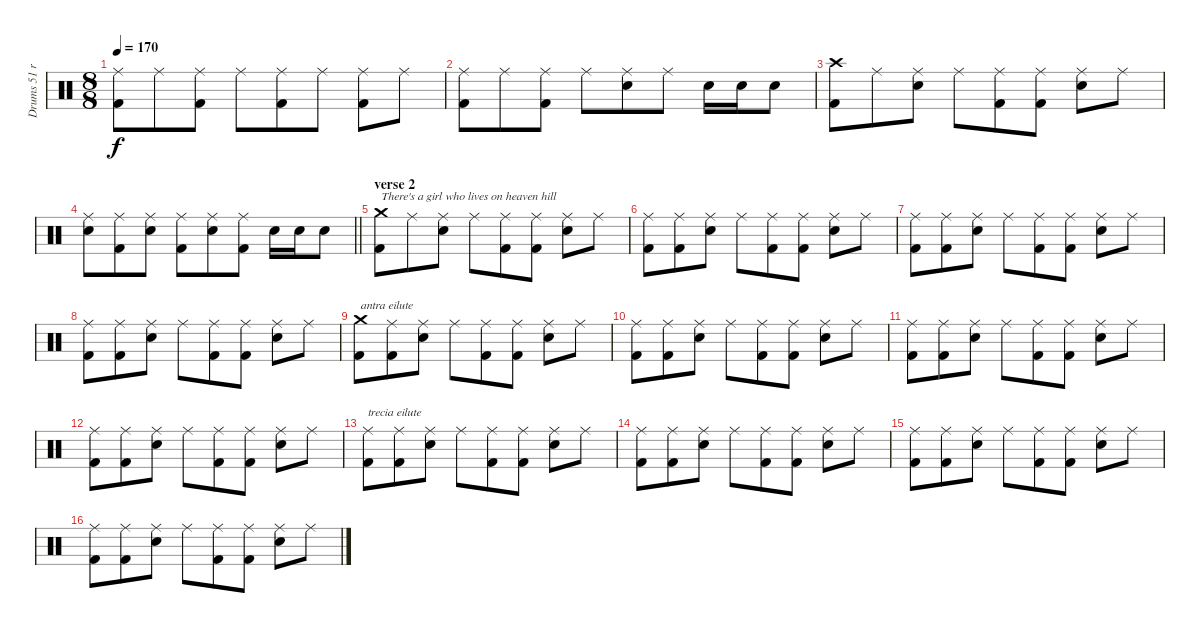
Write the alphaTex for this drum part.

\track ("Drums 51 ride ALBUM" "Drums 51 r") {mute instrument percussion}
\staff {score}
\articulation defaults
\ts (8 8)
\tempo 170
\clef neutral
\ks c
("Ride (middle)" "Kick (hit) 2").8{dy f} "Ride (middle)".8 ("Ride (middle)" "Kick (hit) 2").8 "Ride (middle)".8 ("Ride (middle)" "Kick (hit) 2").8 "Ride (middle)".8 ("Ride (middle)" "Kick (hit) 2").8 "Ride (middle)".8 |
("Ride (middle)" "Kick (hit) 2").8 "Ride (middle)".8 ("Ride (middle)" "Kick (hit) 2").8 "Ride (middle)".8 ("Ride (middle)" "Snare (hit) 2").8 "Ride (middle)".8 "Snare (hit) 2".16 "Snare (hit) 2".16 "Snare (hit) 2".8 |
("Crash high (hit)" "Kick (hit) 2").8 "Ride (middle)".8 ("Ride (middle)" "Snare (hit) 2").8 "Ride (middle)".8 ("Ride (middle)" "Kick (hit) 2").8 ("Ride (middle)" "Kick (hit) 2").8 ("Ride (middle)" "Snare (hit) 2").8 "Ride (middle)".8 |
\barLineRight lightlight
("Ride (middle)" "Snare (hit) 2").8 ("Ride (middle)" "Kick (hit) 2").8 ("Ride (middle)" "Snare (hit) 2").8 ("Ride (middle)" "Kick (hit) 2").8 ("Ride (middle)" "Snare (hit) 2").8 ("Ride (middle)" "Kick (hit) 2").8 "Snare (hit) 2".16 "Snare (hit) 2".16 "Snare (hit) 2".8 |
\section ("" "verse 2")
("Crash medium (hit)" "Kick (hit) 2").8{txt "There's a girl who lives on heaven hill"} "Ride (middle)".8 ("Ride (middle)" "Snare (hit) 2").8 "Ride (middle)".8 ("Ride (middle)" "Kick (hit) 2").8 ("Ride (middle)" "Kick (hit) 2").8 ("Ride (middle)" "Snare (hit) 2").8 "Ride (middle)".8 |
("Ride (middle)" "Kick (hit) 2").8 ("Ride (middle)" "Kick (hit) 2").8 ("Ride (middle)" "Snare (hit) 2").8 "Ride (middle)".8 ("Ride (middle)" "Kick (hit) 2").8 ("Ride (middle)" "Kick (hit) 2").8 ("Ride (middle)" "Snare (hit) 2").8 "Ride (middle)".8 |
("Ride (middle)" "Kick (hit) 2").8 ("Ride (middle)" "Kick (hit) 2").8 ("Ride (middle)" "Snare (hit) 2").8 "Ride (middle)".8 ("Ride (middle)" "Kick (hit) 2").8 ("Ride (middle)" "Kick (hit) 2").8 ("Ride (middle)" "Snare (hit) 2").8 "Ride (middle)".8 |
("Ride (middle)" "Kick (hit) 2").8 ("Ride (middle)" "Kick (hit) 2").8 ("Ride (middle)" "Snare (hit) 2").8 "Ride (middle)".8 ("Ride (middle)" "Kick (hit) 2").8 ("Ride (middle)" "Kick (hit) 2").8 ("Ride (middle)" "Snare (hit) 2").8 "Ride (middle)".8 |
("Crash medium (hit)" "Kick (hit) 2").8{txt "antra eilute"} ("Ride (middle)" "Kick (hit) 2").8 ("Ride (middle)" "Snare (hit) 2").8 "Ride (middle)".8 ("Ride (middle)" "Kick (hit) 2").8 ("Ride (middle)" "Kick (hit) 2").8 ("Ride (middle)" "Snare (hit) 2").8 "Ride (middle)".8 |
("Ride (middle)" "Kick (hit) 2").8 ("Ride (middle)" "Kick (hit) 2").8 ("Ride (middle)" "Snare (hit) 2").8 "Ride (middle)".8 ("Ride (middle)" "Kick (hit) 2").8 ("Ride (middle)" "Kick (hit) 2").8 ("Ride (middle)" "Snare (hit) 2").8 "Ride (middle)".8 |
("Ride (middle)" "Kick (hit) 2").8 ("Ride (middle)" "Kick (hit) 2").8 ("Ride (middle)" "Snare (hit) 2").8 "Ride (middle)".8 ("Ride (middle)" "Kick (hit) 2").8 ("Ride (middle)" "Kick (hit) 2").8 ("Ride (middle)" "Snare (hit) 2").8 "Ride (middle)".8 |
("Ride (middle)" "Kick (hit) 2").8 ("Ride (middle)" "Kick (hit) 2").8 ("Ride (middle)" "Snare (hit) 2").8 "Ride (middle)".8 ("Ride (middle)" "Kick (hit) 2").8 ("Ride (middle)" "Kick (hit) 2").8 ("Ride (middle)" "Snare (hit) 2").8 "Ride (middle)".8 |
("Ride (middle)" "Kick (hit) 2").8{txt "trecia eilute"} ("Ride (middle)" "Kick (hit) 2").8 ("Ride (middle)" "Snare (hit) 2").8 "Ride (middle)".8 ("Ride (middle)" "Kick (hit) 2").8 ("Ride (middle)" "Kick (hit) 2").8 ("Ride (middle)" "Snare (hit) 2").8 "Ride (middle)".8 |
("Ride (middle)" "Kick (hit) 2").8 ("Ride (middle)" "Kick (hit) 2").8 ("Ride (middle)" "Snare (hit) 2").8 "Ride (middle)".8 ("Ride (middle)" "Kick (hit) 2").8 ("Ride (middle)" "Kick (hit) 2").8 ("Ride (middle)" "Snare (hit) 2").8 "Ride (middle)".8 |
("Ride (middle)" "Kick (hit) 2").8 ("Ride (middle)" "Kick (hit) 2").8 ("Ride (middle)" "Snare (hit) 2").8 "Ride (middle)".8 ("Ride (middle)" "Kick (hit) 2").8 ("Ride (middle)" "Kick (hit) 2").8 ("Ride (middle)" "Snare (hit) 2").8 "Ride (middle)".8 |
("Ride (middle)" "Kick (hit) 2").8 ("Ride (middle)" "Kick (hit) 2").8 ("Ride (middle)" "Snare (hit) 2").8 "Ride (middle)".8 ("Ride (middle)" "Kick (hit) 2").8 ("Ride (middle)" "Kick (hit) 2").8 ("Ride (middle)" "Snare (hit) 2").8 "Ride (middle)".8
